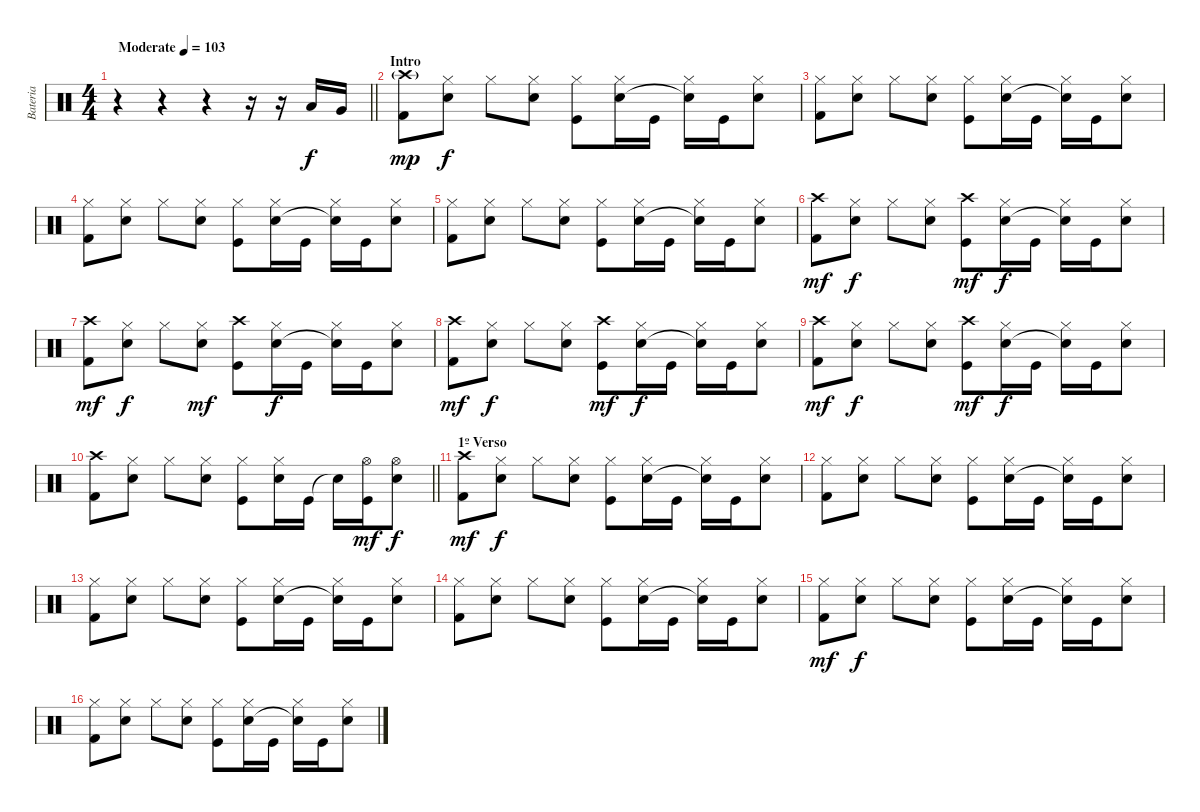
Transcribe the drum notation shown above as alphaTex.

\track ("Bateria" "Bateria") {instrument percussion}
\staff {score}
\articulation defaults
\ts (4 4)
\tempo (103 "Moderate")
\clef neutral
\barLineRight lightlight
\ks c
r.4{dy f} r.4 r.4 r.16 r.16 "Low Tom (hit)".16 "Very Low Tom (hit)".16 |
\section ("" "Intro")
("Crash high (hit)"{g} "Kick (hit) 2").8{dy mp} ("Hi-Hat (closed)" "Snare (hit) 2").8{dy f} "Hi-Hat (closed)".8 ("Hi-Hat (closed)" "Snare (hit) 2").8 ("Hi-Hat (closed)" "Kick (hit)").8 ("Hi-Hat (closed)" "Snare (hit) 2").16 "Kick (hit)".16 ("Hi-Hat (closed)" "Snare (hit)"{t}).16 "Kick (hit)".16 ("Hi-Hat (closed)" "Snare (hit) 2").8 |
("Hi-Hat (closed)" "Kick (hit) 2").8 ("Hi-Hat (closed)" "Snare (hit) 2").8 "Hi-Hat (closed)".8 ("Hi-Hat (closed)" "Snare (hit) 2").8 ("Hi-Hat (closed)" "Kick (hit)").8 ("Hi-Hat (closed)" "Snare (hit) 2").16 "Kick (hit)".16 ("Hi-Hat (closed)" "Snare (hit)"{t}).16 "Kick (hit)".16 ("Hi-Hat (closed)" "Snare (hit) 2").8 |
("Hi-Hat (closed)" "Kick (hit) 2").8 ("Hi-Hat (closed)" "Snare (hit) 2").8 "Hi-Hat (closed)".8 ("Hi-Hat (closed)" "Snare (hit) 2").8 ("Hi-Hat (closed)" "Kick (hit)").8 ("Hi-Hat (closed)" "Snare (hit) 2").16 "Kick (hit)".16 ("Hi-Hat (closed)" "Snare (hit)"{t}).16 "Kick (hit)".16 ("Hi-Hat (closed)" "Snare (hit) 2").8 |
("Hi-Hat (closed)" "Kick (hit) 2").8 ("Hi-Hat (closed)" "Snare (hit) 2").8 "Hi-Hat (closed)".8 ("Hi-Hat (closed)" "Snare (hit) 2").8 ("Hi-Hat (closed)" "Kick (hit)").8 ("Hi-Hat (closed)" "Snare (hit) 2").16 "Kick (hit)".16 ("Hi-Hat (closed)" "Snare (hit)"{t}).16 "Kick (hit)".16 ("Hi-Hat (closed)" "Snare (hit) 2").8 |
("Crash high (hit)" "Kick (hit) 2").8{dy mf} ("Hi-Hat (closed)" "Snare (hit) 2").8{dy f} "Hi-Hat (closed)".8 ("Hi-Hat (closed)" "Snare (hit) 2").8 ("Crash high (hit)" "Kick (hit)").8{dy mf} ("Hi-Hat (closed)" "Snare (hit) 2").16{dy f} "Kick (hit)".16 ("Hi-Hat (closed)" "Snare (hit)"{t}).16 "Kick (hit)".16 ("Hi-Hat (closed)" "Snare (hit) 2").8 |
("Crash high (hit)" "Kick (hit) 2").8{dy mf} ("Hi-Hat (closed)" "Snare (hit) 2").8{dy f} "Hi-Hat (closed)".8 ("Hi-Hat (closed)" "Snare (hit) 2").8{dy mf} ("Crash high (hit)" "Kick (hit)").8 ("Hi-Hat (closed)" "Snare (hit) 2").16{dy f} "Kick (hit)".16 ("Hi-Hat (closed)" "Snare (hit)"{t}).16 "Kick (hit)".16 ("Hi-Hat (closed)" "Snare (hit) 2").8 |
("Crash high (hit)" "Kick (hit) 2").8{dy mf} ("Hi-Hat (closed)" "Snare (hit) 2").8{dy f} "Hi-Hat (closed)".8 ("Hi-Hat (closed)" "Snare (hit) 2").8 ("Crash high (hit)" "Kick (hit)").8{dy mf} ("Hi-Hat (closed)" "Snare (hit) 2").16{dy f} "Kick (hit)".16 ("Hi-Hat (closed)" "Snare (hit)"{t}).16 "Kick (hit)".16 ("Hi-Hat (closed)" "Snare (hit) 2").8 |
("Crash high (hit)" "Kick (hit) 2").8{dy mf} ("Hi-Hat (closed)" "Snare (hit) 2").8{dy f} "Hi-Hat (closed)".8 ("Hi-Hat (closed)" "Snare (hit) 2").8 ("Crash high (hit)" "Kick (hit)").8{dy mf} ("Hi-Hat (closed)" "Snare (hit) 2").16{dy f} "Kick (hit)".16 ("Hi-Hat (closed)" "Snare (hit)"{t}).16 "Kick (hit)".16 ("Hi-Hat (closed)" "Snare (hit) 2").8 |
\barLineRight lightlight
("Crash high (hit)" "Kick (hit) 2").8 ("Hi-Hat (closed)" "Snare (hit) 2").8 "Hi-Hat (closed)".8 ("Hi-Hat (closed)" "Snare (hit) 2").8 ("Hi-Hat (closed)" "Kick (hit)").8 ("Hi-Hat (closed)" "Snare (hit) 2").16 "Kick (hit)".16 "Snare (hit)"{t}.16 ("Hi-Hat (open)" "Kick (hit)").16{dy mf} ("Hi-Hat (open)" "Snare (hit) 2").8{dy f} |
\section ("" "1º Verso")
("Crash high (hit)" "Kick (hit) 2").8{dy mf} ("Hi-Hat (closed)" "Snare (hit) 2").8{dy f} "Hi-Hat (closed)".8 ("Hi-Hat (closed)" "Snare (hit) 2").8 ("Hi-Hat (closed)" "Kick (hit)").8 ("Hi-Hat (closed)" "Snare (hit) 2").16 "Kick (hit)".16 ("Hi-Hat (closed)" "Snare (hit)"{t}).16 "Kick (hit)".16 ("Hi-Hat (closed)" "Snare (hit) 2").8 |
("Hi-Hat (closed)" "Kick (hit) 2").8 ("Hi-Hat (closed)" "Snare (hit) 2").8 "Hi-Hat (closed)".8 ("Hi-Hat (closed)" "Snare (hit) 2").8 ("Hi-Hat (closed)" "Kick (hit)").8 ("Hi-Hat (closed)" "Snare (hit) 2").16 "Kick (hit)".16 ("Hi-Hat (closed)" "Snare (hit)"{t}).16 "Kick (hit)".16 ("Hi-Hat (closed)" "Snare (hit) 2").8 |
("Hi-Hat (closed)" "Kick (hit) 2").8 ("Hi-Hat (closed)" "Snare (hit) 2").8 "Hi-Hat (closed)".8 ("Hi-Hat (closed)" "Snare (hit) 2").8 ("Hi-Hat (closed)" "Kick (hit)").8 ("Hi-Hat (closed)" "Snare (hit) 2").16 "Kick (hit)".16 ("Hi-Hat (closed)" "Snare (hit)"{t}).16 "Kick (hit)".16 ("Hi-Hat (closed)" "Snare (hit) 2").8 |
("Hi-Hat (closed)" "Kick (hit) 2").8 ("Hi-Hat (closed)" "Snare (hit) 2").8 "Hi-Hat (closed)".8 ("Hi-Hat (closed)" "Snare (hit) 2").8 ("Hi-Hat (closed)" "Kick (hit)").8 ("Hi-Hat (closed)" "Snare (hit) 2").16 "Kick (hit)".16 ("Hi-Hat (closed)" "Snare (hit)"{t}).16 "Kick (hit)".16 ("Hi-Hat (closed)" "Snare (hit) 2").8 |
("Hi-Hat (closed)" "Kick (hit) 2").8{dy mf} ("Hi-Hat (closed)" "Snare (hit) 2").8{dy f} "Hi-Hat (closed)".8 ("Hi-Hat (closed)" "Snare (hit) 2").8 ("Hi-Hat (closed)" "Kick (hit)").8 ("Hi-Hat (closed)" "Snare (hit) 2").16 "Kick (hit)".16 ("Hi-Hat (closed)" "Snare (hit)"{t}).16 "Kick (hit)".16 ("Hi-Hat (closed)" "Snare (hit) 2").8 |
("Hi-Hat (closed)" "Kick (hit) 2").8 ("Hi-Hat (closed)" "Snare (hit) 2").8 "Hi-Hat (closed)".8 ("Hi-Hat (closed)" "Snare (hit) 2").8 ("Hi-Hat (closed)" "Kick (hit)").8 ("Hi-Hat (closed)" "Snare (hit) 2").16 "Kick (hit)".16 ("Hi-Hat (closed)" "Snare (hit)"{t}).16 "Kick (hit)".16 ("Hi-Hat (closed)" "Snare (hit) 2").8
